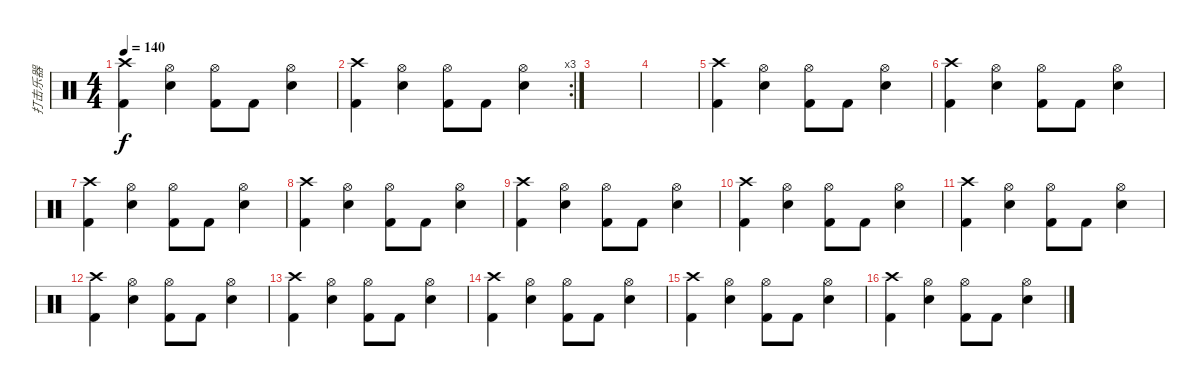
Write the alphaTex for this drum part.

\track ("打击乐器" "打击乐器") {instrument percussion}
\staff {score}
\articulation defaults
\ts (4 4)
\tempo 140
\clef neutral
\ks c
("Crash high (hit)" "Kick (hit) 2").4{dy f} ("Hi-Hat (open)" "Snare (hit) 2").4 ("Hi-Hat (open)" "Kick (hit) 2").8 "Kick (hit) 2".8 ("Hi-Hat (open)" "Snare (hit) 2").4 |
\rc 3
("Crash high (hit)" "Kick (hit) 2").4 ("Hi-Hat (open)" "Snare (hit) 2").4 ("Hi-Hat (open)" "Kick (hit) 2").8 "Kick (hit) 2".8 ("Hi-Hat (open)" "Snare (hit) 2").4 |
|
|
("Crash high (hit)" "Kick (hit) 2").4 ("Hi-Hat (open)" "Snare (hit) 2").4 ("Hi-Hat (open)" "Kick (hit) 2").8 "Kick (hit) 2".8 ("Hi-Hat (open)" "Snare (hit) 2").4 |
("Crash high (hit)" "Kick (hit) 2").4 ("Hi-Hat (open)" "Snare (hit) 2").4 ("Hi-Hat (open)" "Kick (hit) 2").8 "Kick (hit) 2".8 ("Hi-Hat (open)" "Snare (hit) 2").4 |
("Crash high (hit)" "Kick (hit) 2").4 ("Hi-Hat (open)" "Snare (hit) 2").4 ("Hi-Hat (open)" "Kick (hit) 2").8 "Kick (hit) 2".8 ("Hi-Hat (open)" "Snare (hit) 2").4 |
("Crash high (hit)" "Kick (hit) 2").4 ("Hi-Hat (open)" "Snare (hit) 2").4 ("Hi-Hat (open)" "Kick (hit) 2").8 "Kick (hit) 2".8 ("Hi-Hat (open)" "Snare (hit) 2").4 |
("Crash high (hit)" "Kick (hit) 2").4 ("Hi-Hat (open)" "Snare (hit) 2").4 ("Hi-Hat (open)" "Kick (hit) 2").8 "Kick (hit) 2".8 ("Hi-Hat (open)" "Snare (hit) 2").4 |
("Crash high (hit)" "Kick (hit) 2").4 ("Hi-Hat (open)" "Snare (hit) 2").4 ("Hi-Hat (open)" "Kick (hit) 2").8 "Kick (hit) 2".8 ("Hi-Hat (open)" "Snare (hit) 2").4 |
("Crash high (hit)" "Kick (hit) 2").4 ("Hi-Hat (open)" "Snare (hit) 2").4 ("Hi-Hat (open)" "Kick (hit) 2").8 "Kick (hit) 2".8 ("Hi-Hat (open)" "Snare (hit) 2").4 |
("Crash high (hit)" "Kick (hit) 2").4 ("Hi-Hat (open)" "Snare (hit) 2").4 ("Hi-Hat (open)" "Kick (hit) 2").8 "Kick (hit) 2".8 ("Hi-Hat (open)" "Snare (hit) 2").4 |
("Crash high (hit)" "Kick (hit) 2").4 ("Hi-Hat (open)" "Snare (hit) 2").4 ("Hi-Hat (open)" "Kick (hit) 2").8 "Kick (hit) 2".8 ("Hi-Hat (open)" "Snare (hit) 2").4 |
("Crash high (hit)" "Kick (hit) 2").4 ("Hi-Hat (open)" "Snare (hit) 2").4 ("Hi-Hat (open)" "Kick (hit) 2").8 "Kick (hit) 2".8 ("Hi-Hat (open)" "Snare (hit) 2").4 |
("Crash high (hit)" "Kick (hit) 2").4 ("Hi-Hat (open)" "Snare (hit) 2").4 ("Hi-Hat (open)" "Kick (hit) 2").8 "Kick (hit) 2".8 ("Hi-Hat (open)" "Snare (hit) 2").4 |
("Crash high (hit)" "Kick (hit) 2").4 ("Hi-Hat (open)" "Snare (hit) 2").4 ("Hi-Hat (open)" "Kick (hit) 2").8 "Kick (hit) 2".8 ("Hi-Hat (open)" "Snare (hit) 2").4
